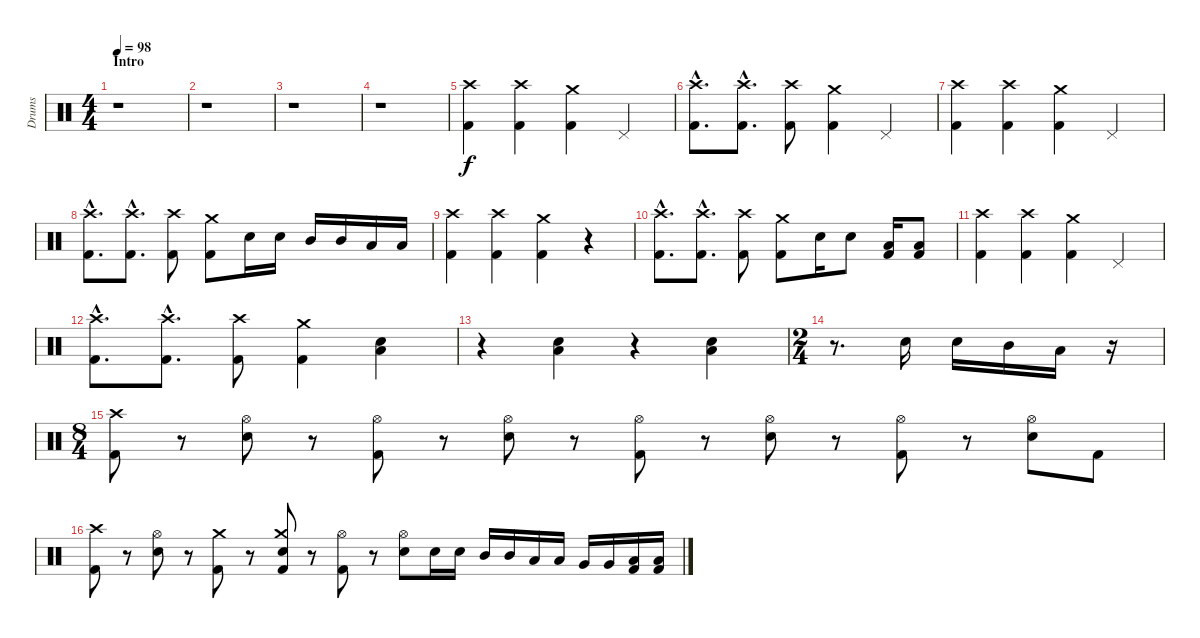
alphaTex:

\track ("Drums" "Drums") {instrument percussion}
\staff {score}
\articulation defaults
\ts (4 4)
\section ("" "Intro")
\tempo 98
\clef neutral
\ks c
r.1{dy f} |
r.1 |
r.1 |
r.1 |
("Crash high (hit)" "Kick (hit) 2").4 ("Crash high (hit)" "Kick (hit) 2").4 ("Crash medium (hit)" "Kick (hit) 2").4 "Pedal Hi-Hat (hit)".4 |
("Crash high (hit)"{hac} "Kick (hit) 2"{hac}).8{d} ("Crash high (hit)"{hac} "Kick (hit) 2"{hac}).8{d} ("Crash high (hit)" "Kick (hit) 2").8 ("Crash medium (hit)" "Kick (hit) 2").4 "Pedal Hi-Hat (hit)".4 |
("Crash high (hit)" "Kick (hit) 2").4 ("Crash high (hit)" "Kick (hit) 2").4 ("Crash medium (hit)" "Kick (hit) 2").4 "Pedal Hi-Hat (hit)".4 |
("Crash high (hit)"{hac} "Kick (hit) 2"{hac}).8{d} ("Crash high (hit)"{hac} "Kick (hit) 2"{hac}).8{d} ("Crash high (hit)" "Kick (hit) 2").8 ("Crash medium (hit)" "Kick (hit) 2").8 "Electric Snare (hit)".16 "Electric Snare (hit)".16 "Mid Tom (hit)".16 "Mid Tom (hit)".16 "Low Tom (hit)".16 "Low Tom (hit)".16 |
("Crash high (hit)" "Kick (hit) 2").4 ("Crash high (hit)" "Kick (hit) 2").4 ("Crash medium (hit)" "Kick (hit) 2").4 r.4 |
("Crash high (hit)"{hac} "Kick (hit) 2"{hac}).8{d} ("Crash high (hit)"{hac} "Kick (hit) 2"{hac}).8{d} ("Crash high (hit)" "Kick (hit) 2").8 ("Crash medium (hit)" "Kick (hit) 2").8 "Electric Snare (hit)".16 "Electric Snare (hit)".8 ("Low Tom (hit)" "Kick (hit) 2").16 ("Low Tom (hit)" "Kick (hit) 2").8 |
("Crash high (hit)" "Kick (hit) 2").4 ("Crash high (hit)" "Kick (hit) 2").4 ("Crash medium (hit)" "Kick (hit) 2").4 "Pedal Hi-Hat (hit)".4 |
("Crash high (hit)"{hac} "Kick (hit) 2"{hac}).8{d} ("Crash high (hit)"{hac} "Kick (hit) 2"{hac}).8{d} ("Crash high (hit)" "Kick (hit) 2").8 ("Crash medium (hit)" "Kick (hit) 2").4 ("Low Floor Tom (hit)" "Electric Snare (hit)").4 |
r.4 ("Low Floor Tom (hit)" "Electric Snare (hit)").4 r.4 ("Low Floor Tom (hit)" "Electric Snare (hit)").4 |
\ts (2 4)
r.8{d} "Electric Snare (hit)".16 "Electric Snare (hit)".16 "Mid Tom (hit)".16 "Low Tom (hit)".16 r.16 |
\ts (8 4)
("Crash high (hit)" "Kick (hit) 2").8 r.8 ("Hi-Hat (open)" "Electric Snare (hit)").8 r.8 ("Hi-Hat (open)" "Kick (hit) 2").8 r.8 ("Hi-Hat (open)" "Electric Snare (hit)").8 r.8 ("Hi-Hat (open)" "Kick (hit) 2").8 r.8 ("Hi-Hat (open)" "Electric Snare (hit)").8 r.8 ("Hi-Hat (open)" "Kick (hit) 2").8 r.8 ("Hi-Hat (open)" "Electric Snare (hit)").8 "Kick (hit) 2".8 |
("Crash high (hit)" "Kick (hit) 2").8 r.8 ("Hi-Hat (open)" "Electric Snare (hit)").8 r.8 ("Crash medium (hit)" "Kick (hit) 2").8 r.8 ("Crash medium (hit)" "Electric Snare (hit)" "Kick (hit) 2").8 r.8 ("Hi-Hat (open)" "Kick (hit) 2").8 r.8 ("Hi-Hat (open)" "Electric Snare (hit)").8 "Electric Snare (hit)".16 "Electric Snare (hit)".16 "Mid Tom (hit)".16 "Mid Tom (hit)".16 "Low Tom (hit)".16 "Low Tom (hit)".16 "Very Low Tom (hit)".16 "Very Low Tom (hit)".16 ("Low Floor Tom (hit)" "Kick (hit) 2").16 ("Low Floor Tom (hit)" "Kick (hit) 2").16
